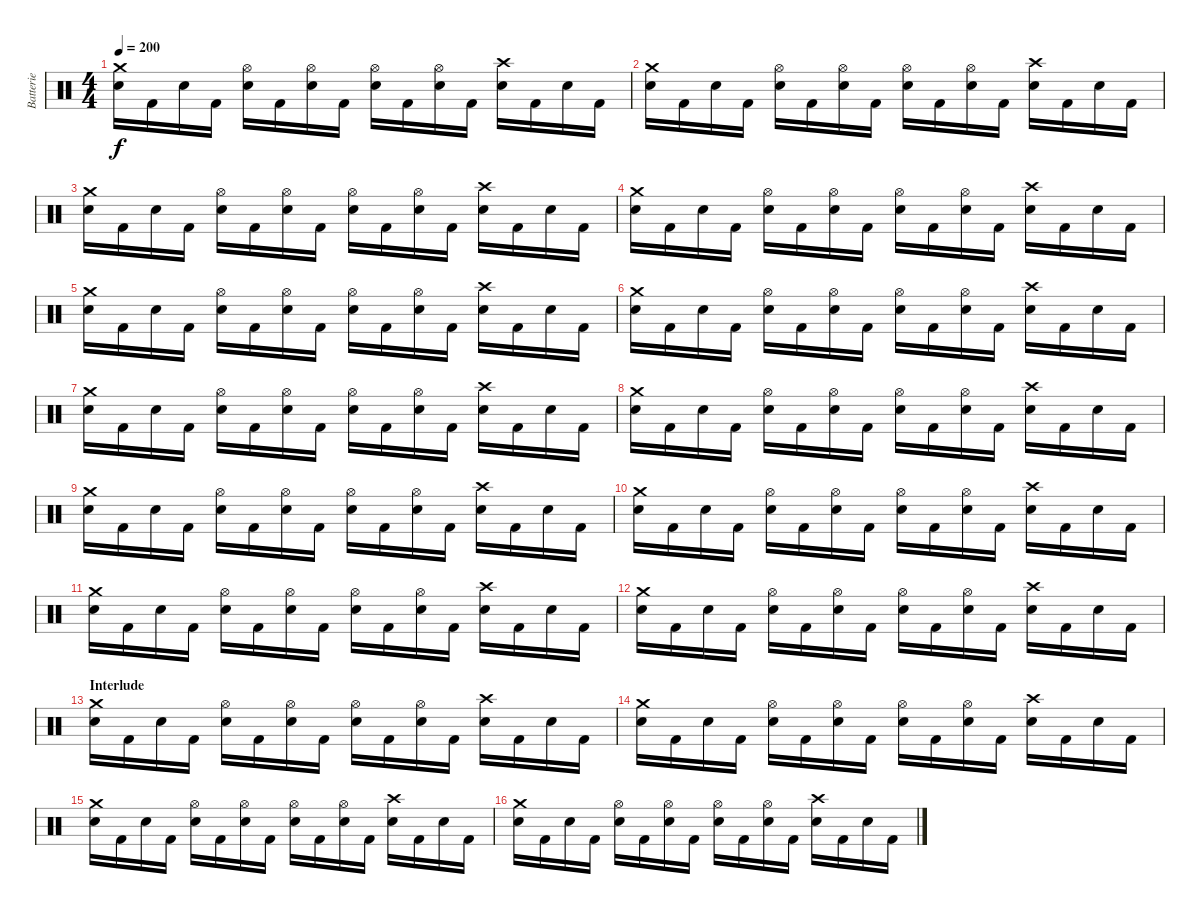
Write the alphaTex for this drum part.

\track ("Batterie" "Batterie") {instrument percussion}
\staff {score}
\articulation defaults
\ts (4 4)
\tempo 200
\clef neutral
\ks c
("Snare (hit) 2" "Crash medium (hit)").16{dy f} "Kick (hit) 2".16 "Snare (hit) 2".16 "Kick (hit) 2".16 ("Snare (hit) 2" "Hi-Hat (open)").16 "Kick (hit) 2".16 ("Snare (hit) 2" "Hi-Hat (open)").16 "Kick (hit) 2".16 ("Snare (hit) 2" "Hi-Hat (open)").16 "Kick (hit) 2".16 ("Snare (hit) 2" "Hi-Hat (open)").16 "Kick (hit) 2".16 ("Snare (hit) 2" "Crash high (hit)").16 "Kick (hit) 2".16 "Snare (hit) 2".16 "Kick (hit) 2".16 |
("Snare (hit) 2" "Crash medium (hit)").16 "Kick (hit) 2".16 "Snare (hit) 2".16 "Kick (hit) 2".16 ("Snare (hit) 2" "Hi-Hat (open)").16 "Kick (hit) 2".16 ("Snare (hit) 2" "Hi-Hat (open)").16 "Kick (hit) 2".16 ("Snare (hit) 2" "Hi-Hat (open)").16 "Kick (hit) 2".16 ("Snare (hit) 2" "Hi-Hat (open)").16 "Kick (hit) 2".16 ("Snare (hit) 2" "Crash high (hit)").16 "Kick (hit) 2".16 "Snare (hit) 2".16 "Kick (hit) 2".16 |
("Snare (hit) 2" "Crash medium (hit)").16 "Kick (hit) 2".16 "Snare (hit) 2".16 "Kick (hit) 2".16 ("Snare (hit) 2" "Hi-Hat (open)").16 "Kick (hit) 2".16 ("Snare (hit) 2" "Hi-Hat (open)").16 "Kick (hit) 2".16 ("Snare (hit) 2" "Hi-Hat (open)").16 "Kick (hit) 2".16 ("Snare (hit) 2" "Hi-Hat (open)").16 "Kick (hit) 2".16 ("Snare (hit) 2" "Crash high (hit)").16 "Kick (hit) 2".16 "Snare (hit) 2".16 "Kick (hit) 2".16 |
("Snare (hit) 2" "Crash medium (hit)").16 "Kick (hit) 2".16 "Snare (hit) 2".16 "Kick (hit) 2".16 ("Snare (hit) 2" "Hi-Hat (open)").16 "Kick (hit) 2".16 ("Snare (hit) 2" "Hi-Hat (open)").16 "Kick (hit) 2".16 ("Snare (hit) 2" "Hi-Hat (open)").16 "Kick (hit) 2".16 ("Snare (hit) 2" "Hi-Hat (open)").16 "Kick (hit) 2".16 ("Snare (hit) 2" "Crash high (hit)").16 "Kick (hit) 2".16 "Snare (hit) 2".16 "Kick (hit) 2".16 |
("Snare (hit) 2" "Crash medium (hit)").16 "Kick (hit) 2".16 "Snare (hit) 2".16 "Kick (hit) 2".16 ("Snare (hit) 2" "Hi-Hat (open)").16 "Kick (hit) 2".16 ("Snare (hit) 2" "Hi-Hat (open)").16 "Kick (hit) 2".16 ("Snare (hit) 2" "Hi-Hat (open)").16 "Kick (hit) 2".16 ("Snare (hit) 2" "Hi-Hat (open)").16 "Kick (hit) 2".16 ("Snare (hit) 2" "Crash high (hit)").16 "Kick (hit) 2".16 "Snare (hit) 2".16 "Kick (hit) 2".16 |
("Snare (hit) 2" "Crash medium (hit)").16 "Kick (hit) 2".16 "Snare (hit) 2".16 "Kick (hit) 2".16 ("Snare (hit) 2" "Hi-Hat (open)").16 "Kick (hit) 2".16 ("Snare (hit) 2" "Hi-Hat (open)").16 "Kick (hit) 2".16 ("Snare (hit) 2" "Hi-Hat (open)").16 "Kick (hit) 2".16 ("Snare (hit) 2" "Hi-Hat (open)").16 "Kick (hit) 2".16 ("Snare (hit) 2" "Crash high (hit)").16 "Kick (hit) 2".16 "Snare (hit) 2".16 "Kick (hit) 2".16 |
("Snare (hit) 2" "Crash medium (hit)").16 "Kick (hit) 2".16 "Snare (hit) 2".16 "Kick (hit) 2".16 ("Snare (hit) 2" "Hi-Hat (open)").16 "Kick (hit) 2".16 ("Snare (hit) 2" "Hi-Hat (open)").16 "Kick (hit) 2".16 ("Snare (hit) 2" "Hi-Hat (open)").16 "Kick (hit) 2".16 ("Snare (hit) 2" "Hi-Hat (open)").16 "Kick (hit) 2".16 ("Snare (hit) 2" "Crash high (hit)").16 "Kick (hit) 2".16 "Snare (hit) 2".16 "Kick (hit) 2".16 |
("Snare (hit) 2" "Crash medium (hit)").16 "Kick (hit) 2".16 "Snare (hit) 2".16 "Kick (hit) 2".16 ("Snare (hit) 2" "Hi-Hat (open)").16 "Kick (hit) 2".16 ("Snare (hit) 2" "Hi-Hat (open)").16 "Kick (hit) 2".16 ("Snare (hit) 2" "Hi-Hat (open)").16 "Kick (hit) 2".16 ("Snare (hit) 2" "Hi-Hat (open)").16 "Kick (hit) 2".16 ("Snare (hit) 2" "Crash high (hit)").16 "Kick (hit) 2".16 "Snare (hit) 2".16 "Kick (hit) 2".16 |
("Snare (hit) 2" "Crash medium (hit)").16 "Kick (hit) 2".16 "Snare (hit) 2".16 "Kick (hit) 2".16 ("Snare (hit) 2" "Hi-Hat (open)").16 "Kick (hit) 2".16 ("Snare (hit) 2" "Hi-Hat (open)").16 "Kick (hit) 2".16 ("Snare (hit) 2" "Hi-Hat (open)").16 "Kick (hit) 2".16 ("Snare (hit) 2" "Hi-Hat (open)").16 "Kick (hit) 2".16 ("Snare (hit) 2" "Crash high (hit)").16 "Kick (hit) 2".16 "Snare (hit) 2".16 "Kick (hit) 2".16 |
("Snare (hit) 2" "Crash medium (hit)").16 "Kick (hit) 2".16 "Snare (hit) 2".16 "Kick (hit) 2".16 ("Snare (hit) 2" "Hi-Hat (open)").16 "Kick (hit) 2".16 ("Snare (hit) 2" "Hi-Hat (open)").16 "Kick (hit) 2".16 ("Snare (hit) 2" "Hi-Hat (open)").16 "Kick (hit) 2".16 ("Snare (hit) 2" "Hi-Hat (open)").16 "Kick (hit) 2".16 ("Snare (hit) 2" "Crash high (hit)").16 "Kick (hit) 2".16 "Snare (hit) 2".16 "Kick (hit) 2".16 |
("Snare (hit) 2" "Crash medium (hit)").16 "Kick (hit) 2".16 "Snare (hit) 2".16 "Kick (hit) 2".16 ("Snare (hit) 2" "Hi-Hat (open)").16 "Kick (hit) 2".16 ("Snare (hit) 2" "Hi-Hat (open)").16 "Kick (hit) 2".16 ("Snare (hit) 2" "Hi-Hat (open)").16 "Kick (hit) 2".16 ("Snare (hit) 2" "Hi-Hat (open)").16 "Kick (hit) 2".16 ("Snare (hit) 2" "Crash high (hit)").16 "Kick (hit) 2".16 "Snare (hit) 2".16 "Kick (hit) 2".16 |
("Snare (hit) 2" "Crash medium (hit)").16 "Kick (hit) 2".16 "Snare (hit) 2".16 "Kick (hit) 2".16 ("Snare (hit) 2" "Hi-Hat (open)").16 "Kick (hit) 2".16 ("Snare (hit) 2" "Hi-Hat (open)").16 "Kick (hit) 2".16 ("Snare (hit) 2" "Hi-Hat (open)").16 "Kick (hit) 2".16 ("Snare (hit) 2" "Hi-Hat (open)").16 "Kick (hit) 2".16 ("Snare (hit) 2" "Crash high (hit)").16 "Kick (hit) 2".16 "Snare (hit) 2".16 "Kick (hit) 2".16 |
\section ("" "Interlude")
("Snare (hit) 2" "Crash medium (hit)").16 "Kick (hit) 2".16 "Snare (hit) 2".16 "Kick (hit) 2".16 ("Snare (hit) 2" "Hi-Hat (open)").16 "Kick (hit) 2".16 ("Snare (hit) 2" "Hi-Hat (open)").16 "Kick (hit) 2".16 ("Snare (hit) 2" "Hi-Hat (open)").16 "Kick (hit) 2".16 ("Snare (hit) 2" "Hi-Hat (open)").16 "Kick (hit) 2".16 ("Snare (hit) 2" "Crash high (hit)").16 "Kick (hit) 2".16 "Snare (hit) 2".16 "Kick (hit) 2".16 |
("Snare (hit) 2" "Crash medium (hit)").16 "Kick (hit) 2".16 "Snare (hit) 2".16 "Kick (hit) 2".16 ("Snare (hit) 2" "Hi-Hat (open)").16 "Kick (hit) 2".16 ("Snare (hit) 2" "Hi-Hat (open)").16 "Kick (hit) 2".16 ("Snare (hit) 2" "Hi-Hat (open)").16 "Kick (hit) 2".16 ("Snare (hit) 2" "Hi-Hat (open)").16 "Kick (hit) 2".16 ("Snare (hit) 2" "Crash high (hit)").16 "Kick (hit) 2".16 "Snare (hit) 2".16 "Kick (hit) 2".16 |
("Snare (hit) 2" "Crash medium (hit)").16 "Kick (hit) 2".16 "Snare (hit) 2".16 "Kick (hit) 2".16 ("Snare (hit) 2" "Hi-Hat (open)").16 "Kick (hit) 2".16 ("Snare (hit) 2" "Hi-Hat (open)").16 "Kick (hit) 2".16 ("Snare (hit) 2" "Hi-Hat (open)").16 "Kick (hit) 2".16 ("Snare (hit) 2" "Hi-Hat (open)").16 "Kick (hit) 2".16 ("Snare (hit) 2" "Crash high (hit)").16 "Kick (hit) 2".16 "Snare (hit) 2".16 "Kick (hit) 2".16 |
("Snare (hit) 2" "Crash medium (hit)").16 "Kick (hit) 2".16 "Snare (hit) 2".16 "Kick (hit) 2".16 ("Snare (hit) 2" "Hi-Hat (open)").16 "Kick (hit) 2".16 ("Snare (hit) 2" "Hi-Hat (open)").16 "Kick (hit) 2".16 ("Snare (hit) 2" "Hi-Hat (open)").16 "Kick (hit) 2".16 ("Snare (hit) 2" "Hi-Hat (open)").16 "Kick (hit) 2".16 ("Snare (hit) 2" "Crash high (hit)").16 "Kick (hit) 2".16 "Snare (hit) 2".16 "Kick (hit) 2".16
